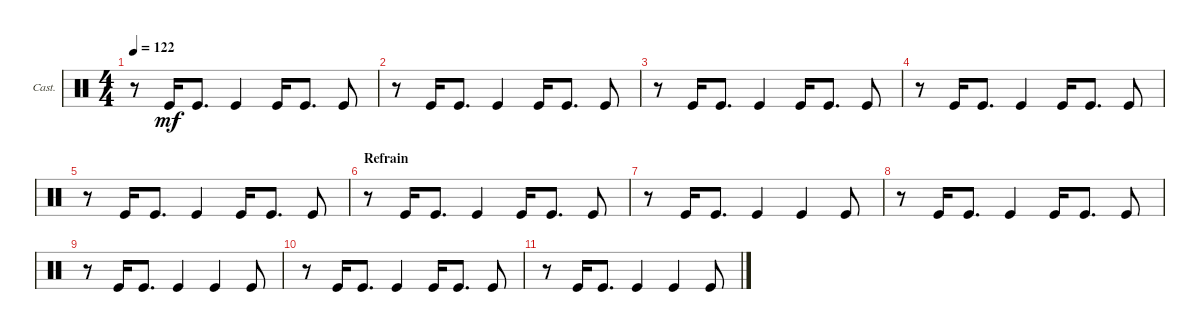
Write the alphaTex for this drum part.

\defaultSystemsLayout 4
\bracketExtendMode groupsimilarinstruments
\firstSystemTrackNameOrientation horizontal
\otherSystemsTrackNameOrientation horizontal
\track ("Castanets" "Cast.") {instrument percussion}
\staff {score}
\articulation defaults
\ts (4 4)
\tempo 122
\clef neutral
\ks c
r.8{dy mf} "Kick (hit)".16 "Kick (hit)".8{d} "Kick (hit)".4 "Kick (hit)".16 "Kick (hit)".8{d} "Kick (hit)".8 |
r.8 "Kick (hit)".16 "Kick (hit)".8{d} "Kick (hit)".4 "Kick (hit)".16 "Kick (hit)".8{d} "Kick (hit)".8 |
r.8 "Kick (hit)".16 "Kick (hit)".8{d} "Kick (hit)".4 "Kick (hit)".16 "Kick (hit)".8{d} "Kick (hit)".8 |
r.8 "Kick (hit)".16 "Kick (hit)".8{d} "Kick (hit)".4 "Kick (hit)".16 "Kick (hit)".8{d} "Kick (hit)".8 |
r.8 "Kick (hit)".16 "Kick (hit)".8{d} "Kick (hit)".4 "Kick (hit)".16 "Kick (hit)".8{d} "Kick (hit)".8 |
\section ("" "Refrain")
\scale
0.237113 r.8 "Kick (hit)".16 "Kick (hit)".8{d} "Kick (hit)".4 "Kick (hit)".16 "Kick (hit)".8{d} "Kick (hit)".8 |
r.8 "Kick (hit)".16 "Kick (hit)".8{d} "Kick (hit)".4 "Kick (hit)".4 "Kick (hit)".8 |
r.8 "Kick (hit)".16 "Kick (hit)".8{d} "Kick (hit)".4 "Kick (hit)".16 "Kick (hit)".8{d} "Kick (hit)".8 |
r.8 "Kick (hit)".16 "Kick (hit)".8{d} "Kick (hit)".4 "Kick (hit)".4 "Kick (hit)".8 |
r.8 "Kick (hit)".16 "Kick (hit)".8{d} "Kick (hit)".4 "Kick (hit)".16 "Kick (hit)".8{d} "Kick (hit)".8 |
r.8 "Kick (hit)".16 "Kick (hit)".8{d} "Kick (hit)".4 "Kick (hit)".4 "Kick (hit)".8
